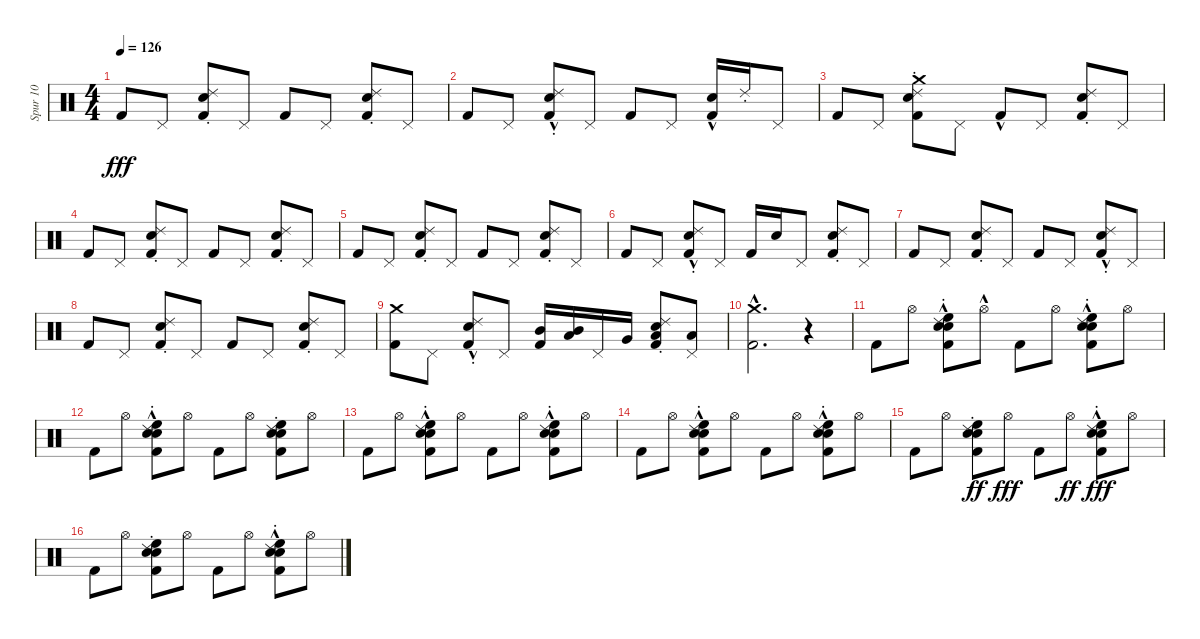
\track ("Spur 10" "Spur 10") {instrument percussion}
\staff {score}
\articulation defaults
\ts (4 4)
\tempo 126
\clef neutral
\ks c "Kick (hit) 2".8{dy fff} "Pedal Hi-Hat (hit)".8
("Kick (hit) 2" "Ride (choke) 2" "Snare (hit) 2").8 "Pedal Hi-Hat (hit)".8 "Kick (hit) 2".8 "Pedal Hi-Hat (hit)".8 ("Snare (hit) 2" "Ride (choke) 2" "Kick (hit) 2").8 "Pedal Hi-Hat (hit)".8 |
"Kick (hit) 2".8 "Pedal Hi-Hat (hit)".8 ("Kick (hit) 2" "Ride (choke) 2"{hac} "Snare (hit) 2").8 "Pedal Hi-Hat (hit)".8 "Kick (hit) 2".8 "Pedal Hi-Hat (hit)".8 ("Snare (hit) 2" "Kick (hit) 2"{hac}).16 "Ride (choke) 2".16 "Pedal Hi-Hat (hit)".8 |
"Kick (hit) 2".8 "Pedal Hi-Hat (hit)".8 ("Kick (hit) 2" "Ride (choke) 2" "Snare (hit) 2" "Crash medium (hit)").8 "Pedal Hi-Hat (hit)".8 "Kick (hit) 2"{hac}.8 "Pedal Hi-Hat (hit)".8 ("Ride (choke) 2" "Kick (hit) 2" "Snare (hit) 2").8 "Pedal Hi-Hat (hit)".8 |
"Kick (hit) 2".8 "Pedal Hi-Hat (hit)".8 ("Ride (choke) 2" "Snare (hit) 2" "Kick (hit) 2").8 "Pedal Hi-Hat (hit)".8 "Kick (hit) 2".8 "Pedal Hi-Hat (hit)".8 ("Kick (hit) 2" "Snare (hit) 2" "Ride (choke) 2").8 "Pedal Hi-Hat (hit)".8 |
"Kick (hit) 2".8 "Pedal Hi-Hat (hit)".8 ("Snare (hit) 2" "Ride (choke) 2" "Kick (hit) 2").8 "Pedal Hi-Hat (hit)".8 "Kick (hit) 2".8 "Pedal Hi-Hat (hit)".8 ("Ride (choke) 2" "Snare (hit) 2" "Kick (hit) 2").8 "Pedal Hi-Hat (hit)".8 |
"Kick (hit) 2".8 "Pedal Hi-Hat (hit)".8 ("Kick (hit) 2" "Ride (choke) 2"{hac} "Snare (hit) 2").8 "Pedal Hi-Hat (hit)".8 "Kick (hit) 2".16 "Snare (hit) 2".16 "Pedal Hi-Hat (hit)".8 ("Ride (choke) 2" "Kick (hit) 2" "Snare (hit) 2").8 "Pedal Hi-Hat (hit)".8 |
"Kick (hit) 2".8 "Pedal Hi-Hat (hit)".8 ("Ride (choke) 2" "Snare (hit) 2" "Kick (hit) 2").8 "Pedal Hi-Hat (hit)".8 "Kick (hit) 2".8 "Pedal Hi-Hat (hit)".8 ("Ride (choke) 2"{hac} "Snare (hit) 2" "Kick (hit) 2").8 "Pedal Hi-Hat (hit)".8 |
"Kick (hit) 2".8 "Pedal Hi-Hat (hit)".8 ("Ride (choke) 2" "Snare (hit) 2" "Kick (hit) 2").8 "Pedal Hi-Hat (hit)".8 "Kick (hit) 2".8 "Pedal Hi-Hat (hit)".8 ("Snare (hit) 2" "Ride (choke) 2" "Kick (hit) 2").8 "Pedal Hi-Hat (hit)".8 |
("Kick (hit) 2" "Crash medium (hit)").8 "Pedal Hi-Hat (hit)".8 ("Ride (choke) 2"{hac} "Kick (hit) 2" "Snare (hit) 2").8 "Pedal Hi-Hat (hit)".8 ("Kick (hit) 2" "Mid Tom (hit)").16 ("Low Tom (hit)" "Mid Tom (hit)").16 "Pedal Hi-Hat (hit)".16 "Very Low Tom (hit)".16 ("Kick (hit) 2" "Snare (hit) 2" "Ride (choke) 2" "Low Tom (hit)").8 ("Pedal Hi-Hat (hit)" "Low Floor Tom (hit)").8 |
("Crash medium (hit)"{hac} "Kick (hit) 2"{hac}).2{d} r.4 |
"Kick (hit) 2".8 "Hi-Hat (open)".8 ("Kick (hit) 2" "High Floor Tom (hit)"{hac} "Electric Snare (hit)" "Ride (choke) 2"{hac} "Snare (hit) 2").8 "Hi-Hat (open)"{hac}.8 "Kick (hit) 2".8 "Hi-Hat (open)".8 ("High Floor Tom (hit)"{hac} "Kick (hit) 2" "Ride (choke) 2" "Electric Snare (hit)" "Snare (hit) 2").8 "Hi-Hat (open)".8 |
"Kick (hit) 2".8 "Hi-Hat (open)".8 ("Electric Snare (hit)" "Ride (choke) 2"{hac} "High Floor Tom (hit)"{hac} "Kick (hit) 2" "Snare (hit) 2").8 "Hi-Hat (open)".8 "Kick (hit) 2".8 "Hi-Hat (open)".8 ("High Floor Tom (hit)" "Kick (hit) 2" "Ride (choke) 2" "Electric Snare (hit)" "Snare (hit) 2").8 "Hi-Hat (open)".8 |
"Kick (hit) 2".8 "Hi-Hat (open)".8 ("Kick (hit) 2" "Electric Snare (hit)" "Ride (choke) 2"{hac} "High Floor Tom (hit)"{hac} "Snare (hit) 2").8 "Hi-Hat (open)".8 "Kick (hit) 2".8 "Hi-Hat (open)".8 ("Electric Snare (hit)" "Ride (choke) 2"{hac} "High Floor Tom (hit)"{hac} "Kick (hit) 2" "Snare (hit) 2").8 "Hi-Hat (open)".8 |
"Kick (hit) 2".8 "Hi-Hat (open)".8 ("High Floor Tom (hit)"{hac} "Ride (choke) 2"{hac} "Kick (hit) 2" "Electric Snare (hit)" "Snare (hit) 2").8 "Hi-Hat (open)".8 "Kick (hit) 2".8 "Hi-Hat (open)".8 ("Kick (hit) 2" "Ride (choke) 2"{hac} "Electric Snare (hit)" "High Floor Tom (hit)"{hac} "Snare (hit) 2").8 "Hi-Hat (open)".8 |
"Kick (hit) 2".8 "Hi-Hat (open)".8 ("Snare (hit) 2" "Kick (hit) 2" "Ride (choke) 2" "High Floor Tom (hit)" "Electric Snare (hit)").8{dy ff} "Hi-Hat (open)".8{dy fff} "Kick (hit) 2".8 "Hi-Hat (open)".8{dy ff} ("Electric Snare (hit)" "Kick (hit) 2" "High Floor Tom (hit)"{hac} "Ride (choke) 2" "Snare (hit) 2").8{dy fff} "Hi-Hat (open)".8 |
"Kick (hit) 2".8 "Hi-Hat (open)".8 ("Snare (hit) 2" "High Floor Tom (hit)" "Electric Snare (hit)" "Kick (hit) 2" "Ride (choke) 2").8 "Hi-Hat (open)".8 "Kick (hit) 2".8 "Hi-Hat (open)".8 ("Ride (choke) 2"{hac} "Kick (hit) 2" "Electric Snare (hit)" "High Floor Tom (hit)"{hac} "Snare (hit) 2").8 "Hi-Hat (open)".8
